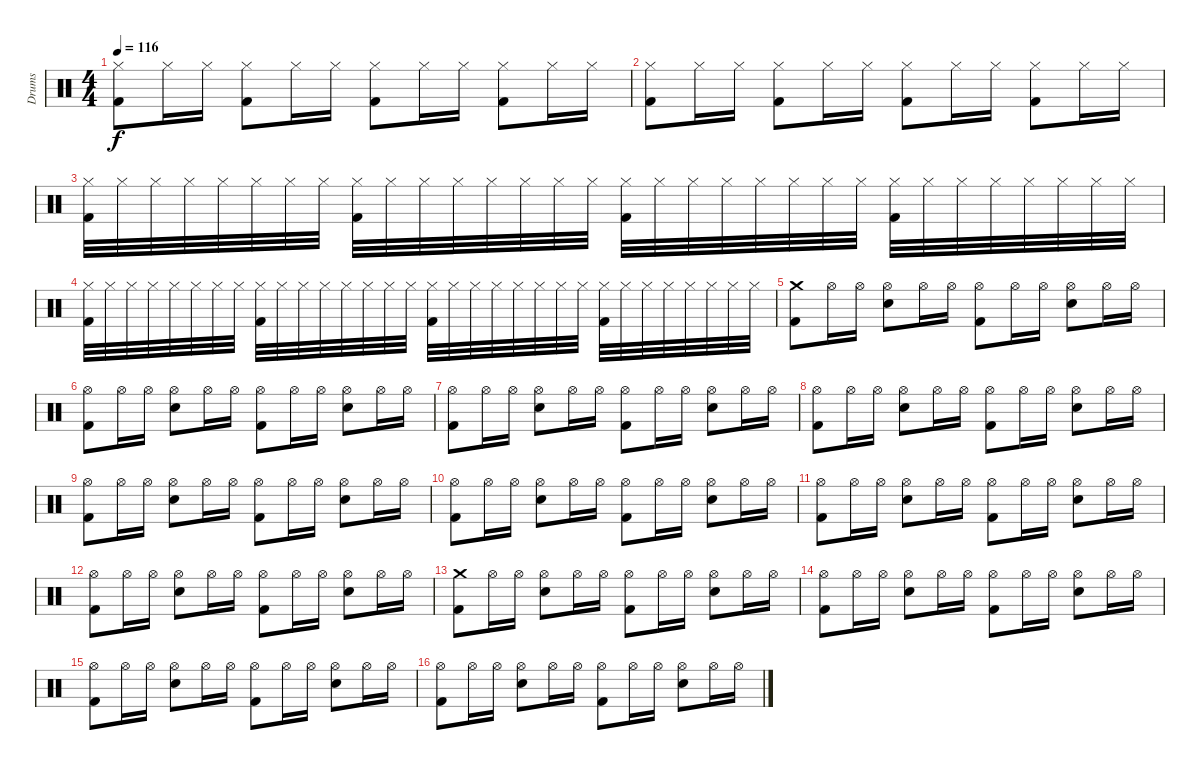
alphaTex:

\track ("Drums" "Drums") {instrument percussion}
\staff {score}
\articulation defaults
\ts (4 4)
\tempo 116
\clef neutral
\ks c
("Hi-Hat (closed)" "Kick (hit) 2").8{dy f} "Hi-Hat (closed)".16 "Hi-Hat (closed)".16 ("Hi-Hat (closed)" "Kick (hit) 2").8 "Hi-Hat (closed)".16 "Hi-Hat (closed)".16 ("Hi-Hat (closed)" "Kick (hit) 2").8 "Hi-Hat (closed)".16 "Hi-Hat (closed)".16 ("Hi-Hat (closed)" "Kick (hit) 2").8 "Hi-Hat (closed)".16 "Hi-Hat (closed)".16 |
("Hi-Hat (closed)" "Kick (hit) 2").8 "Hi-Hat (closed)".16 "Hi-Hat (closed)".16 ("Hi-Hat (closed)" "Kick (hit) 2").8 "Hi-Hat (closed)".16 "Hi-Hat (closed)".16 ("Hi-Hat (closed)" "Kick (hit) 2").8 "Hi-Hat (closed)".16 "Hi-Hat (closed)".16 ("Hi-Hat (closed)" "Kick (hit) 2").8 "Hi-Hat (closed)".16 "Hi-Hat (closed)".16 |
("Hi-Hat (closed)" "Kick (hit) 2").32 "Hi-Hat (closed)".32 "Hi-Hat (closed)".32 "Hi-Hat (closed)".32 "Hi-Hat (closed)".32 "Hi-Hat (closed)".32 "Hi-Hat (closed)".32 "Hi-Hat (closed)".32 ("Hi-Hat (closed)" "Kick (hit) 2").32 "Hi-Hat (closed)".32 "Hi-Hat (closed)".32 "Hi-Hat (closed)".32 "Hi-Hat (closed)".32 "Hi-Hat (closed)".32 "Hi-Hat (closed)".32 "Hi-Hat (closed)".32 ("Hi-Hat (closed)" "Kick (hit) 2").32 "Hi-Hat (closed)".32 "Hi-Hat (closed)".32 "Hi-Hat (closed)".32 "Hi-Hat (closed)".32 "Hi-Hat (closed)".32 "Hi-Hat (closed)".32 "Hi-Hat (closed)".32 ("Hi-Hat (closed)" "Kick (hit) 2").32 "Hi-Hat (closed)".32 "Hi-Hat (closed)".32 "Hi-Hat (closed)".32 "Hi-Hat (closed)".32 "Hi-Hat (closed)".32 "Hi-Hat (closed)".32 "Hi-Hat (closed)".32 |
("Hi-Hat (closed)" "Kick (hit) 2").32 "Hi-Hat (closed)".32 "Hi-Hat (closed)".32 "Hi-Hat (closed)".32 "Hi-Hat (closed)".32 "Hi-Hat (closed)".32 "Hi-Hat (closed)".32 "Hi-Hat (closed)".32 ("Hi-Hat (closed)" "Kick (hit) 2").32 "Hi-Hat (closed)".32 "Hi-Hat (closed)".32 "Hi-Hat (closed)".32 "Hi-Hat (closed)".32 "Hi-Hat (closed)".32 "Hi-Hat (closed)".32 "Hi-Hat (closed)".32 ("Hi-Hat (closed)" "Kick (hit) 2").32 "Hi-Hat (closed)".32 "Hi-Hat (closed)".32 "Hi-Hat (closed)".32 "Hi-Hat (closed)".32 "Hi-Hat (closed)".32 "Hi-Hat (closed)".32 "Hi-Hat (closed)".32 ("Hi-Hat (closed)" "Kick (hit) 2").32 "Hi-Hat (closed)".32 "Hi-Hat (closed)".32 "Hi-Hat (closed)".32 "Hi-Hat (closed)".32 "Hi-Hat (closed)".32 "Hi-Hat (closed)".32 "Hi-Hat (closed)".32 |
("Crash medium (hit)" "Kick (hit) 2").8 "Hi-Hat (open)".16 "Hi-Hat (open)".16 ("Hi-Hat (open)" "Electric Snare (hit)").8 "Hi-Hat (open)".16 "Hi-Hat (open)".16 ("Hi-Hat (open)" "Kick (hit) 2").8 "Hi-Hat (open)".16 "Hi-Hat (open)".16 ("Hi-Hat (open)" "Electric Snare (hit)").8 "Hi-Hat (open)".16 "Hi-Hat (open)".16 |
("Hi-Hat (open)" "Kick (hit) 2").8 "Hi-Hat (open)".16 "Hi-Hat (open)".16 ("Hi-Hat (open)" "Electric Snare (hit)").8 "Hi-Hat (open)".16 "Hi-Hat (open)".16 ("Hi-Hat (open)" "Kick (hit) 2").8 "Hi-Hat (open)".16 "Hi-Hat (open)".16 ("Hi-Hat (open)" "Electric Snare (hit)").8 "Hi-Hat (open)".16 "Hi-Hat (open)".16 |
("Hi-Hat (open)" "Kick (hit) 2").8 "Hi-Hat (open)".16 "Hi-Hat (open)".16 ("Hi-Hat (open)" "Electric Snare (hit)").8 "Hi-Hat (open)".16 "Hi-Hat (open)".16 ("Hi-Hat (open)" "Kick (hit) 2").8 "Hi-Hat (open)".16 "Hi-Hat (open)".16 ("Hi-Hat (open)" "Electric Snare (hit)").8 "Hi-Hat (open)".16 "Hi-Hat (open)".16 |
("Hi-Hat (open)" "Kick (hit) 2").8 "Hi-Hat (open)".16 "Hi-Hat (open)".16 ("Hi-Hat (open)" "Electric Snare (hit)").8 "Hi-Hat (open)".16 "Hi-Hat (open)".16 ("Hi-Hat (open)" "Kick (hit) 2").8 "Hi-Hat (open)".16 "Hi-Hat (open)".16 ("Hi-Hat (open)" "Electric Snare (hit)").8 "Hi-Hat (open)".16 "Hi-Hat (open)".16 |
("Hi-Hat (open)" "Kick (hit) 2").8 "Hi-Hat (open)".16 "Hi-Hat (open)".16 ("Hi-Hat (open)" "Electric Snare (hit)").8 "Hi-Hat (open)".16 "Hi-Hat (open)".16 ("Hi-Hat (open)" "Kick (hit) 2").8 "Hi-Hat (open)".16 "Hi-Hat (open)".16 ("Hi-Hat (open)" "Electric Snare (hit)").8 "Hi-Hat (open)".16 "Hi-Hat (open)".16 |
("Hi-Hat (open)" "Kick (hit) 2").8 "Hi-Hat (open)".16 "Hi-Hat (open)".16 ("Hi-Hat (open)" "Electric Snare (hit)").8 "Hi-Hat (open)".16 "Hi-Hat (open)".16 ("Hi-Hat (open)" "Kick (hit) 2").8 "Hi-Hat (open)".16 "Hi-Hat (open)".16 ("Hi-Hat (open)" "Electric Snare (hit)").8 "Hi-Hat (open)".16 "Hi-Hat (open)".16 |
("Hi-Hat (open)" "Kick (hit) 2").8 "Hi-Hat (open)".16 "Hi-Hat (open)".16 ("Hi-Hat (open)" "Electric Snare (hit)").8 "Hi-Hat (open)".16 "Hi-Hat (open)".16 ("Hi-Hat (open)" "Kick (hit) 2").8 "Hi-Hat (open)".16 "Hi-Hat (open)".16 ("Hi-Hat (open)" "Electric Snare (hit)").8 "Hi-Hat (open)".16 "Hi-Hat (open)".16 |
("Hi-Hat (open)" "Kick (hit) 2").8 "Hi-Hat (open)".16 "Hi-Hat (open)".16 ("Hi-Hat (open)" "Electric Snare (hit)").8 "Hi-Hat (open)".16 "Hi-Hat (open)".16 ("Hi-Hat (open)" "Kick (hit) 2").8 "Hi-Hat (open)".16 "Hi-Hat (open)".16 ("Hi-Hat (open)" "Electric Snare (hit)").8 "Hi-Hat (open)".16 "Hi-Hat (open)".16 |
("Crash medium (hit)" "Kick (hit) 2").8 "Hi-Hat (open)".16 "Hi-Hat (open)".16 ("Hi-Hat (open)" "Electric Snare (hit)").8 "Hi-Hat (open)".16 "Hi-Hat (open)".16 ("Hi-Hat (open)" "Kick (hit) 2").8 "Hi-Hat (open)".16 "Hi-Hat (open)".16 ("Hi-Hat (open)" "Electric Snare (hit)").8 "Hi-Hat (open)".16 "Hi-Hat (open)".16 |
("Hi-Hat (open)" "Kick (hit) 2").8 "Hi-Hat (open)".16 "Hi-Hat (open)".16 ("Hi-Hat (open)" "Electric Snare (hit)").8 "Hi-Hat (open)".16 "Hi-Hat (open)".16 ("Hi-Hat (open)" "Kick (hit) 2").8 "Hi-Hat (open)".16 "Hi-Hat (open)".16 ("Hi-Hat (open)" "Electric Snare (hit)").8 "Hi-Hat (open)".16 "Hi-Hat (open)".16 |
("Hi-Hat (open)" "Kick (hit) 2").8 "Hi-Hat (open)".16 "Hi-Hat (open)".16 ("Hi-Hat (open)" "Electric Snare (hit)").8 "Hi-Hat (open)".16 "Hi-Hat (open)".16 ("Hi-Hat (open)" "Kick (hit) 2").8 "Hi-Hat (open)".16 "Hi-Hat (open)".16 ("Hi-Hat (open)" "Electric Snare (hit)").8 "Hi-Hat (open)".16 "Hi-Hat (open)".16 |
("Hi-Hat (open)" "Kick (hit) 2").8 "Hi-Hat (open)".16 "Hi-Hat (open)".16 ("Hi-Hat (open)" "Electric Snare (hit)").8 "Hi-Hat (open)".16 "Hi-Hat (open)".16 ("Hi-Hat (open)" "Kick (hit) 2").8 "Hi-Hat (open)".16 "Hi-Hat (open)".16 ("Hi-Hat (open)" "Electric Snare (hit)").8 "Hi-Hat (open)".16 "Hi-Hat (open)".16
